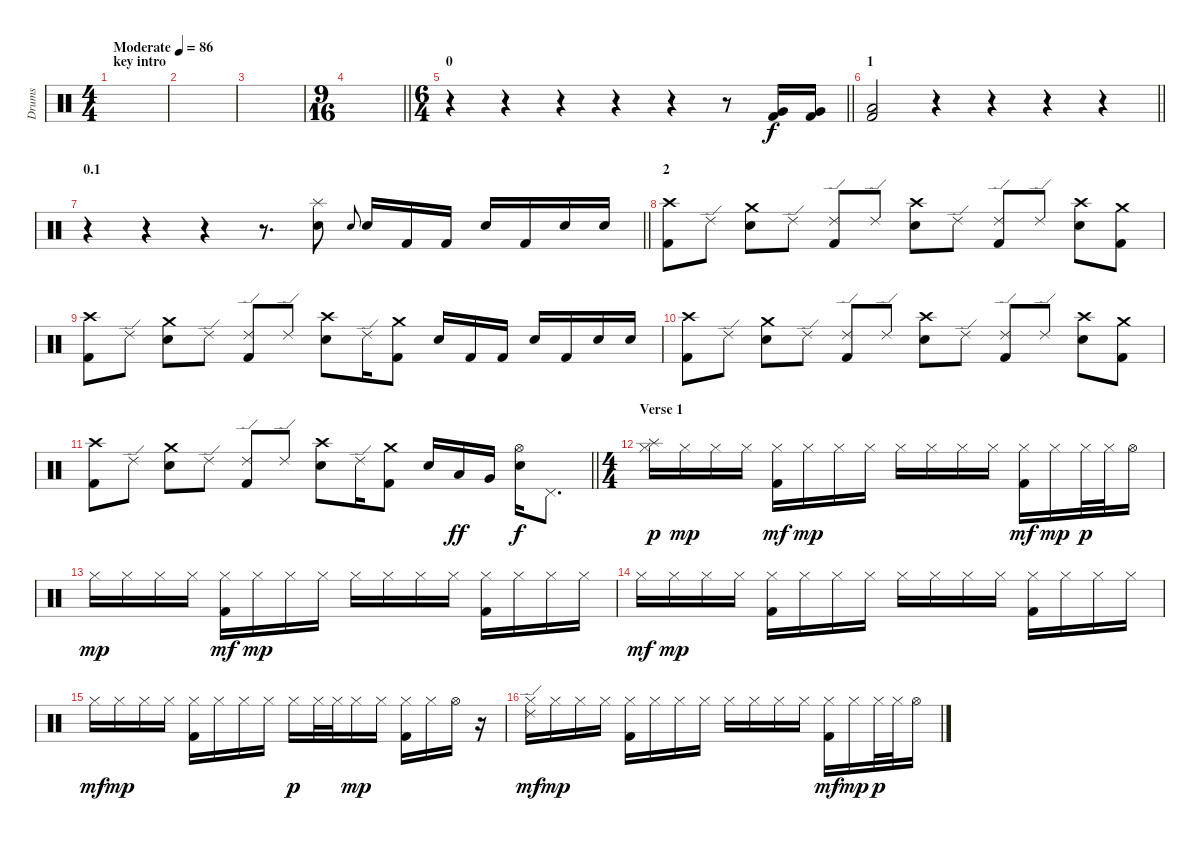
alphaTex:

\track ("Drums" "Drums") {instrument percussion}
\staff {score}
\articulation defaults
\ts (4 4)
\section ("" "key intro")
\tempo (86 "Moderate")
\clef neutral
\ks c
|
|
|
\ts (9 16)
\barLineRight lightlight
|
\ts (6 4)
\section ("" "0")
\barLineRight lightlight
r.4 r.4 r.4 r.4 r.4 r.8 ("Very Low Tom (hit)" "Kick (hit) 2").16 ("Very Low Tom (hit)" "Kick (hit) 2").16 |
\section ("" "1")
\barLineRight lightlight
("Low Tom (hit)" "Kick (hit) 2").2 r.4 r.4 r.4 r.4 |
\section ("" "0.1")
\barLineRight lightlight
r.4 r.4 r.4 r.8{d} ("Splash (hit)" "Electric Snare (hit)").8 "Electric Snare (hit)".8{gr onbeat} "Electric Snare (hit)".16 "Kick (hit) 2".16 "Kick (hit) 2".16 "Electric Snare (hit)".16 "Kick (hit) 2".16 "Electric Snare (hit)".16 "Electric Snare (hit)".16 |
\section ("" "2")
("Crash high (hit)" "Kick (hit) 2").8 "Ride (edge) 2".8 ("Crash medium (hit)" "Electric Snare (hit)").8 "Ride (edge) 2".8 ("Ride (edge) 2" "Kick (hit) 2").8 "Ride (edge) 2".8 ("Crash high (hit)" "Electric Snare (hit)").8 "Ride (edge) 2".8 ("Ride (edge) 2" "Kick (hit) 2").8 "Ride (edge) 2".8 ("Crash high (hit)" "Electric Snare (hit)").8 ("Crash medium (hit)" "Kick (hit) 2").8 |
("Crash high (hit)" "Kick (hit) 2").8 "Ride (edge) 2".8 ("Crash medium (hit)" "Electric Snare (hit)").8 "Ride (edge) 2".8 ("Ride (edge) 2" "Kick (hit) 2").8 "Ride (edge) 2".8 ("Crash high (hit)" "Electric Snare (hit)").8 "Ride (edge) 2".16 ("Crash medium (hit)" "Kick (hit) 2").8 "Electric Snare (hit)".16 "Kick (hit) 2".16 "Kick (hit) 2".16 "Electric Snare (hit)".16 "Kick (hit) 2".16 "Electric Snare (hit)".16 "Electric Snare (hit)".16 |
("Crash high (hit)" "Kick (hit) 2").8 "Ride (edge) 2".8 ("Crash medium (hit)" "Electric Snare (hit)").8 "Ride (edge) 2".8 ("Ride (edge) 2" "Kick (hit) 2").8 "Ride (edge) 2".8 ("Crash high (hit)" "Electric Snare (hit)").8 "Ride (edge) 2".8 ("Ride (edge) 2" "Kick (hit) 2").8 "Ride (edge) 2".8 ("Crash high (hit)" "Electric Snare (hit)").8 ("Crash medium (hit)" "Kick (hit) 2").8 |
\barLineRight lightlight
("Crash high (hit)" "Kick (hit) 2").8 "Ride (edge) 2".8 ("Crash medium (hit)" "Electric Snare (hit)").8 "Ride (edge) 2".8 ("Ride (edge) 2" "Kick (hit) 2").8 "Ride (edge) 2".8 ("Crash high (hit)" "Electric Snare (hit)").8 "Ride (edge) 2".16 ("Crash medium (hit)" "Kick (hit) 2").8 "Electric Snare (hit)".16 "Low Tom (hit)".16{dy ff} "Very Low Tom (hit)".16 ("Hi-Hat (open)" "Electric Snare (hit)").16{dy f} "Pedal Hi-Hat (hit)".8{d} |
\ts (4 4)
\section ("" "Verse 1")
("Hi-Hat (closed)" "Splash (hit)").16{dy p} "Hi-Hat (closed)".16{dy mp} "Hi-Hat (closed)".16 "Hi-Hat (closed)".16 ("Hi-Hat (closed)" "Kick (hit) 2").16{dy mf} "Hi-Hat (closed)".16{dy mp} "Hi-Hat (closed)".16 "Hi-Hat (closed)".16 "Hi-Hat (closed)".16 "Hi-Hat (closed)".16 "Hi-Hat (closed)".16 "Hi-Hat (closed)".16 ("Hi-Hat (closed)" "Kick (hit) 2").16{dy mf} "Hi-Hat (closed)".16{dy mp} "Hi-Hat (closed)".32{dy p} "Hi-Hat (closed)".32 "Hi-Hat (open)".16 |
"Hi-Hat (closed)".16{dy mp} "Hi-Hat (closed)".16 "Hi-Hat (closed)".16 "Hi-Hat (closed)".16 ("Hi-Hat (closed)" "Kick (hit) 2").16{dy mf} "Hi-Hat (closed)".16{dy mp} "Hi-Hat (closed)".16 "Hi-Hat (closed)".16 "Hi-Hat (closed)".16 "Hi-Hat (closed)".16 "Hi-Hat (closed)".16 "Hi-Hat (closed)".16 ("Hi-Hat (closed)" "Kick (hit) 2").16 "Hi-Hat (closed)".16 "Hi-Hat (closed)".16 "Hi-Hat (closed)".16 |
"Hi-Hat (closed)".16{dy mf} "Hi-Hat (closed)".16{dy mp} "Hi-Hat (closed)".16 "Hi-Hat (closed)".16 ("Hi-Hat (closed)" "Kick (hit) 2").16 "Hi-Hat (closed)".16 "Hi-Hat (closed)".16 "Hi-Hat (closed)".16 "Hi-Hat (closed)".16 "Hi-Hat (closed)".16 "Hi-Hat (closed)".16 "Hi-Hat (closed)".16 ("Hi-Hat (closed)" "Kick (hit) 2").16 "Hi-Hat (closed)".16 "Hi-Hat (closed)".16 "Hi-Hat (closed)".16 |
"Hi-Hat (closed)".16{dy mf} "Hi-Hat (closed)".16{dy mp} "Hi-Hat (closed)".16 "Hi-Hat (closed)".16 ("Hi-Hat (closed)" "Kick (hit) 2").16 "Hi-Hat (closed)".16 "Hi-Hat (closed)".16 "Hi-Hat (closed)".16 "Hi-Hat (closed)".16{dy p} "Hi-Hat (closed)".32 "Hi-Hat (closed)".32 "Hi-Hat (closed)".16{dy mp} "Hi-Hat (closed)".16 ("Hi-Hat (closed)" "Kick (hit) 2").16 "Hi-Hat (closed)".16 "Hi-Hat (open)".16 r.16 |
("Ride (edge) 2" "Hi-Hat (closed)").16{dy mf} "Hi-Hat (closed)".16{dy mp} "Hi-Hat (closed)".16 "Hi-Hat (closed)".16 ("Hi-Hat (closed)" "Kick (hit) 2").16 "Hi-Hat (closed)".16 "Hi-Hat (closed)".16 "Hi-Hat (closed)".16 "Hi-Hat (closed)".16 "Hi-Hat (closed)".16 "Hi-Hat (closed)".16 "Hi-Hat (closed)".16 ("Hi-Hat (closed)" "Kick (hit) 2").16{dy mf} "Hi-Hat (closed)".16{dy mp} "Hi-Hat (closed)".32{dy p} "Hi-Hat (closed)".32 "Hi-Hat (open)".16
